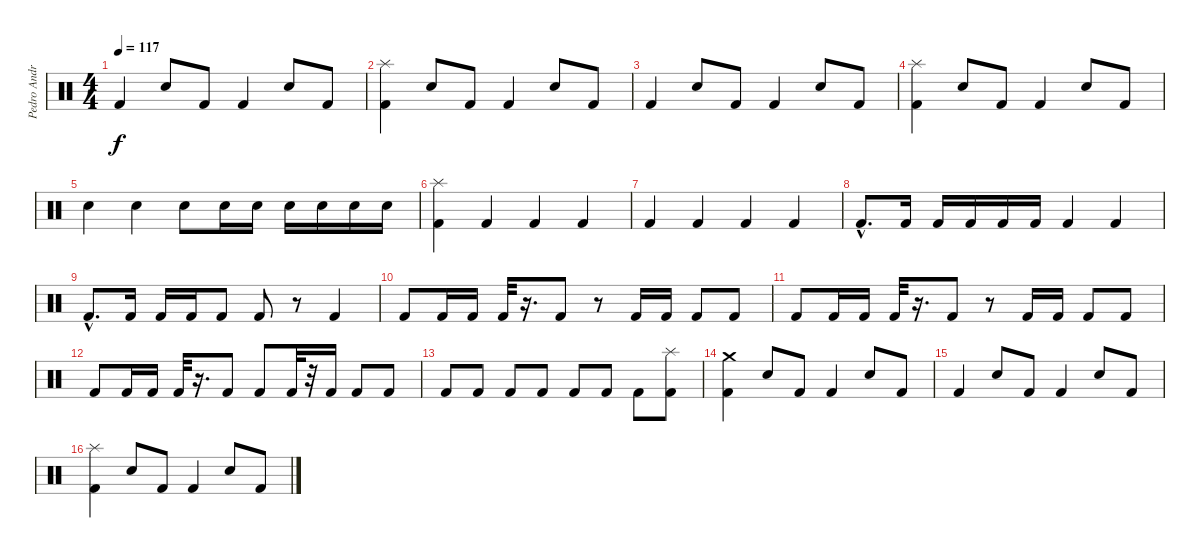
\track ("Pedro Andreu - Batería" "Pedro Andr") {instrument percussion}
\staff {score}
\articulation defaults
\ts (4 4)
\tempo 117
\clef neutral
\ks c "Kick (hit) 2".4{dy f} "Snare (hit) 2".8 "Kick (hit) 2".8 "Kick (hit) 2".4 "Snare (hit) 2".8 "Kick (hit) 2".8
|
("Splash (hit)" "Kick (hit) 2").4 "Snare (hit) 2".8 "Kick (hit) 2".8 "Kick (hit) 2".4 "Snare (hit) 2".8 "Kick (hit) 2".8 |
"Kick (hit) 2".4 "Snare (hit) 2".8 "Kick (hit) 2".8 "Kick (hit) 2".4 "Snare (hit) 2".8 "Kick (hit) 2".8 |
("Splash (hit)" "Kick (hit) 2").4 "Snare (hit) 2".8 "Kick (hit) 2".8 "Kick (hit) 2".4 "Snare (hit) 2".8 "Kick (hit) 2".8 |
"Snare (hit) 2".4 "Snare (hit) 2".4 "Snare (hit) 2".8 "Snare (hit) 2".16 "Snare (hit) 2".16 "Snare (hit) 2".16 "Snare (hit) 2".16 "Snare (hit) 2".16 "Snare (hit) 2".16 |
("Splash (hit)" "Kick (hit) 2").4 "Kick (hit) 2".4 "Kick (hit) 2".4 "Kick (hit) 2".4 |
"Kick (hit) 2".4 "Kick (hit) 2".4 "Kick (hit) 2".4 "Kick (hit) 2".4 |
"Kick (hit) 2"{hac}.8{d} "Kick (hit) 2".16 "Kick (hit) 2".16 "Kick (hit) 2".16 "Kick (hit) 2".16 "Kick (hit) 2".16 "Kick (hit) 2".4 "Kick (hit) 2".4 |
"Kick (hit) 2"{hac}.8{d} "Kick (hit) 2".16 "Kick (hit) 2".16 "Kick (hit) 2".16 "Kick (hit) 2".8 "Kick (hit) 2".8 r.8 "Kick (hit) 2".4 |
"Kick (hit) 2".8 "Kick (hit) 2".16 "Kick (hit) 2".16 "Kick (hit) 2".32 r.16{d} "Kick (hit) 2".8 r.8 "Kick (hit) 2".16 "Kick (hit) 2".16 "Kick (hit) 2".8 "Kick (hit) 2".8 |
"Kick (hit) 2".8 "Kick (hit) 2".16 "Kick (hit) 2".16 "Kick (hit) 2".32 r.16{d} "Kick (hit) 2".8 r.8 "Kick (hit) 2".16 "Kick (hit) 2".16 "Kick (hit) 2".8 "Kick (hit) 2".8 |
"Kick (hit) 2".8 "Kick (hit) 2".16 "Kick (hit) 2".16 "Kick (hit) 2".32 r.16{d} "Kick (hit) 2".8 "Kick (hit) 2".8 "Kick (hit) 2".32 r.32 "Kick (hit) 2".16 "Kick (hit) 2".8 "Kick (hit) 2".8 |
"Kick (hit) 2".8 "Kick (hit) 2".8 "Kick (hit) 2".8 "Kick (hit) 2".8 "Kick (hit) 2".8 "Kick (hit) 2".8 "Kick (hit) 2".8 ("Splash (hit)" "Kick (hit) 2").8 |
("Crash medium (hit)" "Kick (hit) 2").4 "Snare (hit) 2".8 "Kick (hit) 2".8 "Kick (hit) 2".4 "Snare (hit) 2".8 "Kick (hit) 2".8 |
"Kick (hit) 2".4 "Snare (hit) 2".8 "Kick (hit) 2".8 "Kick (hit) 2".4 "Snare (hit) 2".8 "Kick (hit) 2".8 |
("Splash (hit)" "Kick (hit) 2").4 "Snare (hit) 2".8 "Kick (hit) 2".8 "Kick (hit) 2".4 "Snare (hit) 2".8 "Kick (hit) 2".8
